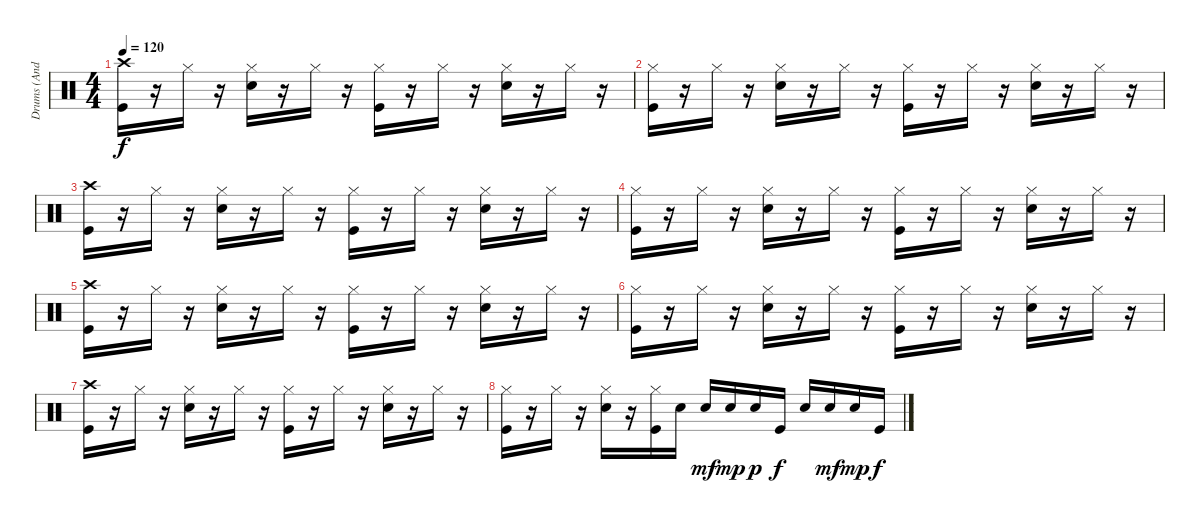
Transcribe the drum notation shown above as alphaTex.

\track ("Drums (Andy Parker)" "Drums (And") {instrument percussion}
\staff {score}
\articulation defaults
\ts (4 4)
\tempo 120
\clef neutral
\ks c
("Crash high (hit)" "Kick (hit)").16{dy f} r.16 "Hi-Hat (closed)".16 r.16 ("Hi-Hat (closed)" "Electric Snare (hit)").16 r.16 "Hi-Hat (closed)".16 r.16 ("Hi-Hat (closed)" "Kick (hit)").16 r.16 "Hi-Hat (closed)".16 r.16 ("Hi-Hat (closed)" "Electric Snare (hit)").16 r.16 "Hi-Hat (closed)".16 r.16 |
("Hi-Hat (closed)" "Kick (hit)").16 r.16 "Hi-Hat (closed)".16 r.16 ("Hi-Hat (closed)" "Electric Snare (hit)").16 r.16 "Hi-Hat (closed)".16 r.16 ("Hi-Hat (closed)" "Kick (hit)").16 r.16 "Hi-Hat (closed)".16 r.16 ("Hi-Hat (closed)" "Electric Snare (hit)").16 r.16 "Hi-Hat (closed)".16 r.16 |
("Crash high (hit)" "Kick (hit)").16 r.16 "Hi-Hat (closed)".16 r.16 ("Hi-Hat (closed)" "Electric Snare (hit)").16 r.16 "Hi-Hat (closed)".16 r.16 ("Hi-Hat (closed)" "Kick (hit)").16 r.16 "Hi-Hat (closed)".16 r.16 ("Hi-Hat (closed)" "Electric Snare (hit)").16 r.16 "Hi-Hat (closed)".16 r.16 |
("Hi-Hat (closed)" "Kick (hit)").16 r.16 "Hi-Hat (closed)".16 r.16 ("Hi-Hat (closed)" "Electric Snare (hit)").16 r.16 "Hi-Hat (closed)".16 r.16 ("Hi-Hat (closed)" "Kick (hit)").16 r.16 "Hi-Hat (closed)".16 r.16 ("Hi-Hat (closed)" "Electric Snare (hit)").16 r.16 "Hi-Hat (closed)".16 r.16 |
("Crash high (hit)" "Kick (hit)").16 r.16 "Hi-Hat (closed)".16 r.16 ("Hi-Hat (closed)" "Electric Snare (hit)").16 r.16 "Hi-Hat (closed)".16 r.16 ("Hi-Hat (closed)" "Kick (hit)").16 r.16 "Hi-Hat (closed)".16 r.16 ("Hi-Hat (closed)" "Electric Snare (hit)").16 r.16 "Hi-Hat (closed)".16 r.16 |
("Hi-Hat (closed)" "Kick (hit)").16 r.16 "Hi-Hat (closed)".16 r.16 ("Hi-Hat (closed)" "Electric Snare (hit)").16 r.16 "Hi-Hat (closed)".16 r.16 ("Hi-Hat (closed)" "Kick (hit)").16 r.16 "Hi-Hat (closed)".16 r.16 ("Hi-Hat (closed)" "Electric Snare (hit)").16 r.16 "Hi-Hat (closed)".16 r.16 |
("Crash high (hit)" "Kick (hit)").16 r.16 "Hi-Hat (closed)".16 r.16 ("Hi-Hat (closed)" "Electric Snare (hit)").16 r.16 "Hi-Hat (closed)".16 r.16 ("Hi-Hat (closed)" "Kick (hit)").16 r.16 "Hi-Hat (closed)".16 r.16 ("Hi-Hat (closed)" "Electric Snare (hit)").16 r.16 "Hi-Hat (closed)".16 r.16 |
("Hi-Hat (closed)" "Kick (hit)").16 r.16 "Hi-Hat (closed)".16 r.16 ("Hi-Hat (closed)" "Electric Snare (hit)").16 r.16 ("Hi-Hat (closed)" "Kick (hit)").16 "Electric Snare (hit)".16 "Electric Snare (hit)".16{dy mf} "Electric Snare (hit)".16{dy mp} "Electric Snare (hit)".16{dy p} "Kick (hit)".16{dy f} "Electric Snare (hit)".16 "Electric Snare (hit)".16{dy mf} "Electric Snare (hit)".16{dy mp} "Kick (hit)".16{dy f}
